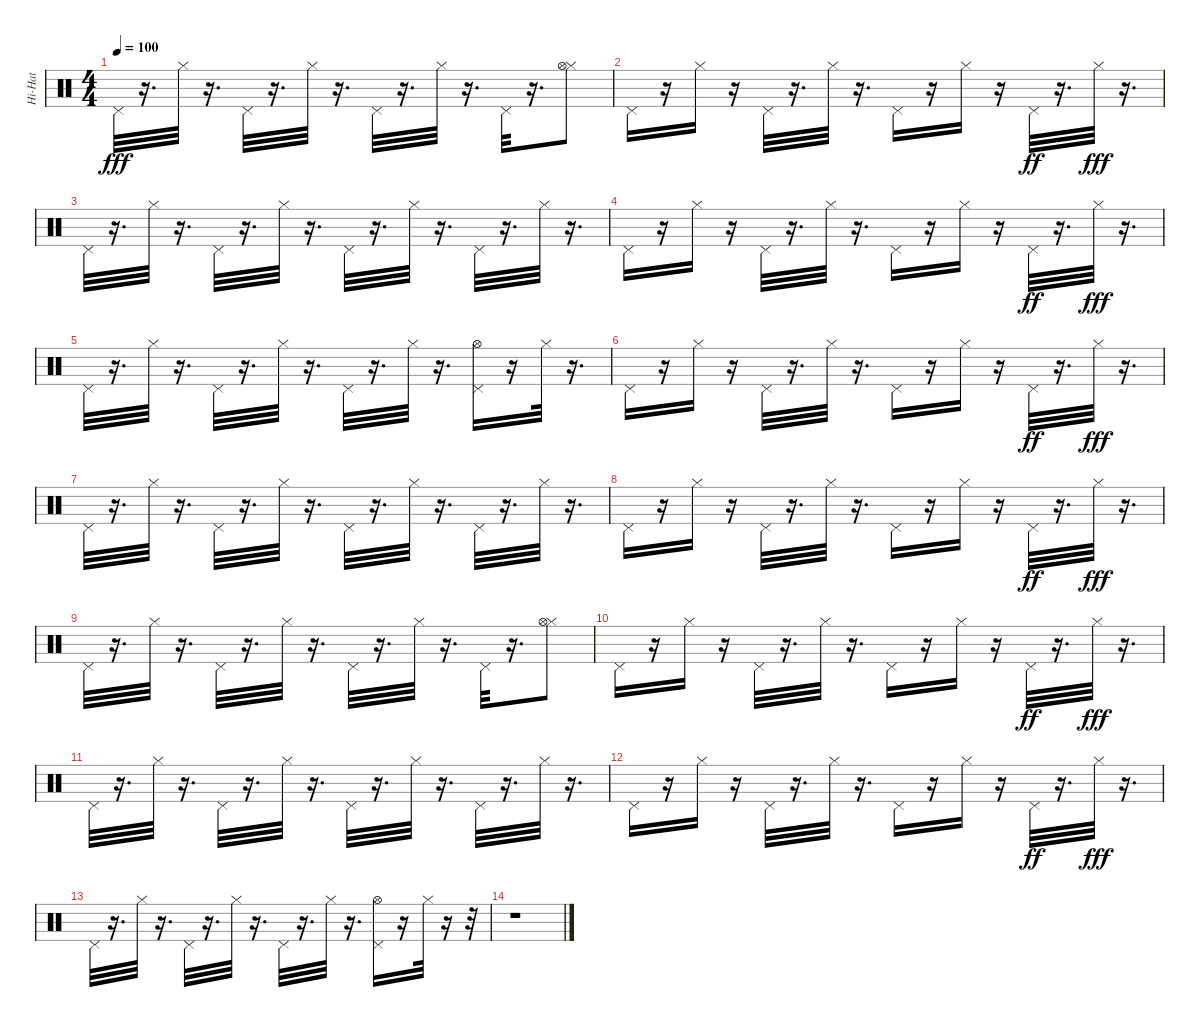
\track ("Hi-Hat" "Hi-Hat") {instrument percussion}
\staff {score}
\articulation defaults
\ts (4 4)
\tempo 100
\clef neutral
\ks c "Pedal Hi-Hat (hit)".32{dy fff}
r.16{d} "Hi-Hat (closed)".32 r.16{d} "Pedal Hi-Hat (hit)".32 r.16{d} "Hi-Hat (closed)".32 r.16{d} "Pedal Hi-Hat (hit)".32 r.16{d} "Hi-Hat (closed)".32 r.16{d} "Pedal Hi-Hat (hit)".32 r.16{d} ("Hi-Hat (closed)" "Hi-Hat (open)").8 |
"Pedal Hi-Hat (hit)".16 r.16 "Hi-Hat (closed)".16 r.16 "Pedal Hi-Hat (hit)".32 r.16{d} "Hi-Hat (closed)".32 r.16{d} "Pedal Hi-Hat (hit)".16 r.16 "Hi-Hat (closed)".16 r.16 "Pedal Hi-Hat (hit)".32{dy ff} r.16{d} "Hi-Hat (closed)".32{dy fff} r.16{d} |
"Pedal Hi-Hat (hit)".32 r.16{d} "Hi-Hat (closed)".32 r.16{d} "Pedal Hi-Hat (hit)".32 r.16{d} "Hi-Hat (closed)".32 r.16{d} "Pedal Hi-Hat (hit)".32 r.16{d} "Hi-Hat (closed)".32 r.16{d} "Pedal Hi-Hat (hit)".32 r.16{d} "Hi-Hat (closed)".32 r.16{d} |
"Pedal Hi-Hat (hit)".16 r.16 "Hi-Hat (closed)".16 r.16 "Pedal Hi-Hat (hit)".32 r.16{d} "Hi-Hat (closed)".32 r.16{d} "Pedal Hi-Hat (hit)".16 r.16 "Hi-Hat (closed)".16 r.16 "Pedal Hi-Hat (hit)".32{dy ff} r.16{d} "Hi-Hat (closed)".32{dy fff} r.16{d} |
"Pedal Hi-Hat (hit)".32 r.16{d} "Hi-Hat (closed)".32 r.16{d} "Pedal Hi-Hat (hit)".32 r.16{d} "Hi-Hat (closed)".32 r.16{d} "Pedal Hi-Hat (hit)".32 r.16{d} "Hi-Hat (closed)".32 r.16{d} ("Pedal Hi-Hat (hit)" "Hi-Hat (open)").16 r.16 "Hi-Hat (closed)".32 r.16{d} |
"Pedal Hi-Hat (hit)".16 r.16 "Hi-Hat (closed)".16 r.16 "Pedal Hi-Hat (hit)".32 r.16{d} "Hi-Hat (closed)".32 r.16{d} "Pedal Hi-Hat (hit)".16 r.16 "Hi-Hat (closed)".16 r.16 "Pedal Hi-Hat (hit)".32{dy ff} r.16{d} "Hi-Hat (closed)".32{dy fff} r.16{d} |
"Pedal Hi-Hat (hit)".32 r.16{d} "Hi-Hat (closed)".32 r.16{d} "Pedal Hi-Hat (hit)".32 r.16{d} "Hi-Hat (closed)".32 r.16{d} "Pedal Hi-Hat (hit)".32 r.16{d} "Hi-Hat (closed)".32 r.16{d} "Pedal Hi-Hat (hit)".32 r.16{d} "Hi-Hat (closed)".32 r.16{d} |
"Pedal Hi-Hat (hit)".16 r.16 "Hi-Hat (closed)".16 r.16 "Pedal Hi-Hat (hit)".32 r.16{d} "Hi-Hat (closed)".32 r.16{d} "Pedal Hi-Hat (hit)".16 r.16 "Hi-Hat (closed)".16 r.16 "Pedal Hi-Hat (hit)".32{dy ff} r.16{d} "Hi-Hat (closed)".32{dy fff} r.16{d} |
"Pedal Hi-Hat (hit)".32 r.16{d} "Hi-Hat (closed)".32 r.16{d} "Pedal Hi-Hat (hit)".32 r.16{d} "Hi-Hat (closed)".32 r.16{d} "Pedal Hi-Hat (hit)".32 r.16{d} "Hi-Hat (closed)".32 r.16{d} "Pedal Hi-Hat (hit)".32 r.16{d} ("Hi-Hat (closed)" "Hi-Hat (open)").8 |
"Pedal Hi-Hat (hit)".16 r.16 "Hi-Hat (closed)".16 r.16 "Pedal Hi-Hat (hit)".32 r.16{d} "Hi-Hat (closed)".32 r.16{d} "Pedal Hi-Hat (hit)".16 r.16 "Hi-Hat (closed)".16 r.16 "Pedal Hi-Hat (hit)".32{dy ff} r.16{d} "Hi-Hat (closed)".32{dy fff} r.16{d} |
"Pedal Hi-Hat (hit)".32 r.16{d} "Hi-Hat (closed)".32 r.16{d} "Pedal Hi-Hat (hit)".32 r.16{d} "Hi-Hat (closed)".32 r.16{d} "Pedal Hi-Hat (hit)".32 r.16{d} "Hi-Hat (closed)".32 r.16{d} "Pedal Hi-Hat (hit)".32 r.16{d} "Hi-Hat (closed)".32 r.16{d} |
"Pedal Hi-Hat (hit)".16 r.16 "Hi-Hat (closed)".16 r.16 "Pedal Hi-Hat (hit)".32 r.16{d} "Hi-Hat (closed)".32 r.16{d} "Pedal Hi-Hat (hit)".16 r.16 "Hi-Hat (closed)".16 r.16 "Pedal Hi-Hat (hit)".32{dy ff} r.16{d} "Hi-Hat (closed)".32{dy fff} r.16{d} |
"Pedal Hi-Hat (hit)".32 r.16{d} "Hi-Hat (closed)".32 r.16{d} "Pedal Hi-Hat (hit)".32 r.16{d} "Hi-Hat (closed)".32 r.16{d} "Pedal Hi-Hat (hit)".32 r.16{d} "Hi-Hat (closed)".32 r.16{d} ("Pedal Hi-Hat (hit)" "Hi-Hat (open)").16 r.16 "Hi-Hat (closed)".32 r.16 r.32 |
r.1
